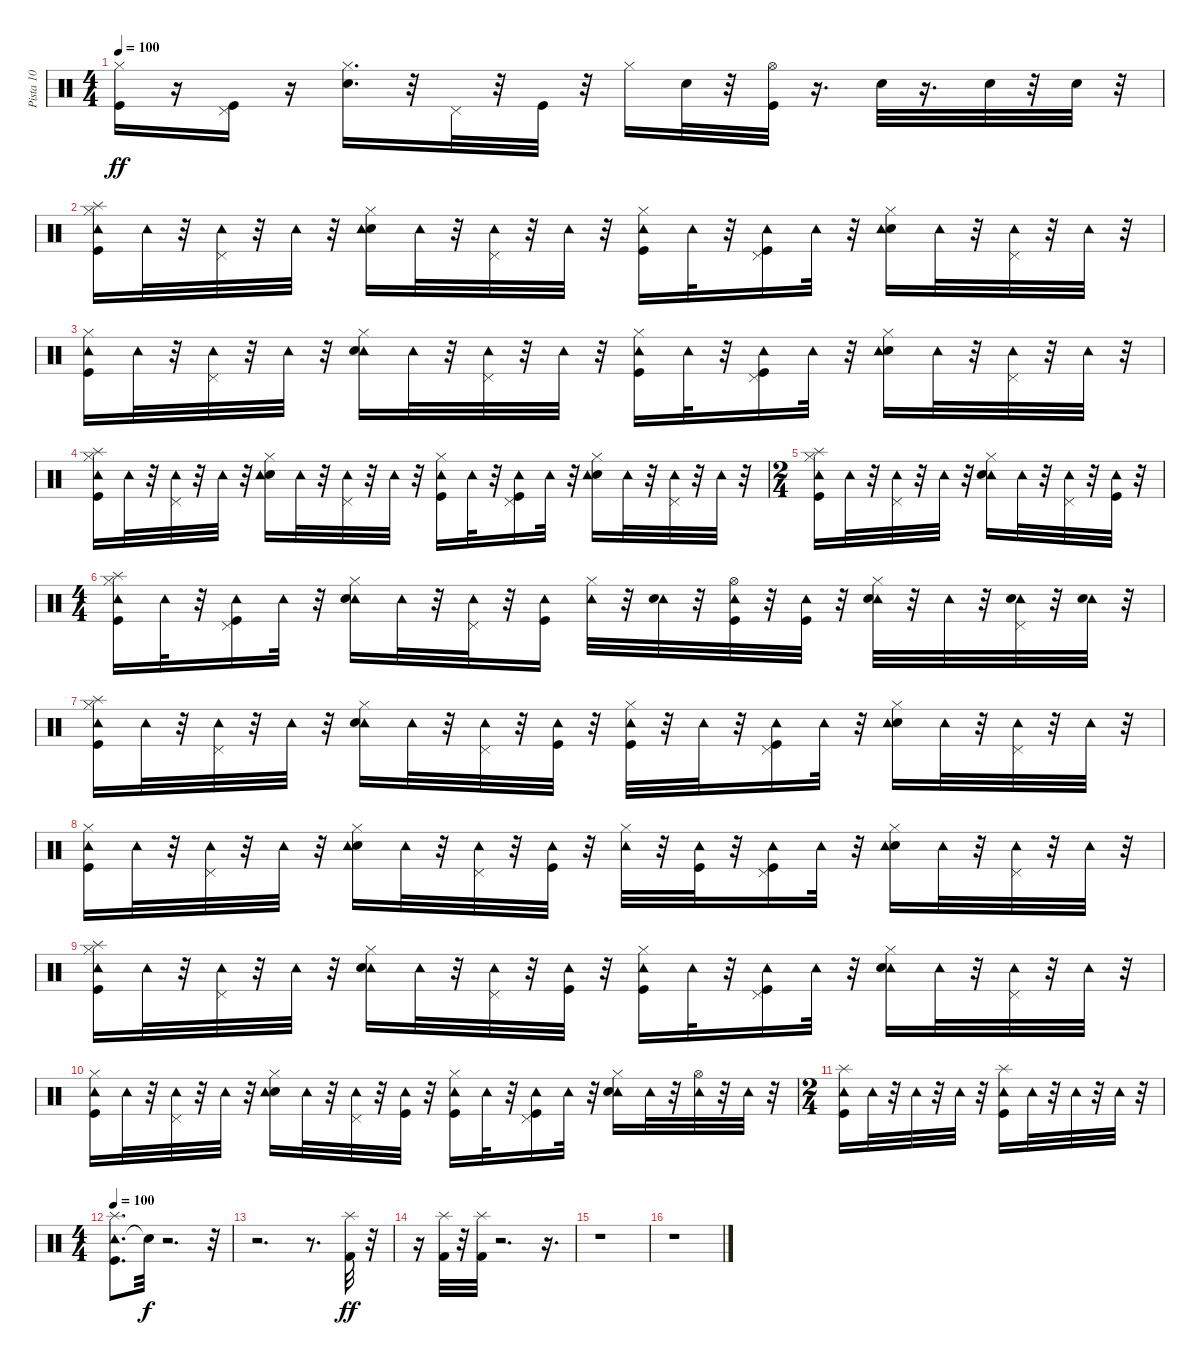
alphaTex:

\track ("Pista 10" "Pista 10") {instrument percussion}
\staff {score}
\articulation defaults
\ts (4 4)
\tempo 100
\clef neutral
\ks c
("Hi-Hat (closed)" "Kick (hit)").16{dy ff} r.16 ("Pedal Hi-Hat (hit)" "Kick (hit)").16 r.16 ("Hi-Hat (closed)" "Snare (hit) 2").16{d} r.32 "Pedal Hi-Hat (hit)".32 r.32 "Kick (hit)".32 r.32 "Hi-Hat (closed)".16 "Snare (hit) 2".32 r.32 ("Hi-Hat (open)" "Kick (hit)").32 r.16{d} "Snare (hit) 2".32 r.16{d} "Snare (hit) 2".32 r.32 "Snare (hit) 2".32 r.32 |
("Tambourine (hit)" "Kick (hit)" "Splash (hit)" "Hi-Hat (closed)").16 "Tambourine (hit)".32 r.32 ("Tambourine (hit)" "Pedal Hi-Hat (hit)").32 r.32 "Tambourine (hit)".32 r.32 ("Snare (hit) 2" "Hi-Hat (closed)" "Tambourine (hit)").16 "Tambourine (hit)".32 r.32 ("Tambourine (hit)" "Pedal Hi-Hat (hit)").32 r.32 "Tambourine (hit)".32 r.32 ("Kick (hit)" "Hi-Hat (closed)" "Tambourine (hit)").16 "Tambourine (hit)".32 r.32 ("Tambourine (hit)" "Kick (hit)" "Pedal Hi-Hat (hit)").16 "Tambourine (hit)".32 r.32 ("Snare (hit) 2" "Hi-Hat (closed)" "Tambourine (hit)").16 "Tambourine (hit)".32 r.32 ("Pedal Hi-Hat (hit)" "Tambourine (hit)").32 r.32 "Tambourine (hit)".32 r.32 |
("Kick (hit)" "Hi-Hat (closed)" "Tambourine (hit)").16 "Tambourine (hit)".32 r.32 ("Tambourine (hit)" "Pedal Hi-Hat (hit)").32 r.32 "Tambourine (hit)".32 r.32 ("Tambourine (hit)" "Snare (hit) 2" "Hi-Hat (closed)").16 "Tambourine (hit)".32 r.32 ("Tambourine (hit)" "Pedal Hi-Hat (hit)").32 r.32 "Tambourine (hit)".32 r.32 ("Tambourine (hit)" "Kick (hit)" "Hi-Hat (closed)").16 "Tambourine (hit)".32 r.32 ("Tambourine (hit)" "Kick (hit)" "Pedal Hi-Hat (hit)").16 "Tambourine (hit)".32 r.32 ("Snare (hit) 2" "Hi-Hat (closed)" "Tambourine (hit)").16 "Tambourine (hit)".32 r.32 ("Pedal Hi-Hat (hit)" "Tambourine (hit)").32 r.32 "Tambourine (hit)".32 r.32 |
("Kick (hit)" "Hi-Hat (closed)" "Splash (hit)" "Tambourine (hit)").16 "Tambourine (hit)".32 r.32 ("Pedal Hi-Hat (hit)" "Tambourine (hit)").32 r.32 "Tambourine (hit)".32 r.32 ("Snare (hit) 2" "Hi-Hat (closed)" "Tambourine (hit)").16 "Tambourine (hit)".32 r.32 ("Tambourine (hit)" "Pedal Hi-Hat (hit)").32 r.32 "Tambourine (hit)".32 r.32 ("Tambourine (hit)" "Kick (hit)" "Hi-Hat (closed)").16 "Tambourine (hit)".32 r.32 ("Tambourine (hit)" "Kick (hit)" "Pedal Hi-Hat (hit)").16 "Tambourine (hit)".32 r.32 ("Snare (hit) 2" "Hi-Hat (closed)" "Tambourine (hit)").16 "Tambourine (hit)".32 r.32 ("Pedal Hi-Hat (hit)" "Tambourine (hit)").32 r.32 "Tambourine (hit)".32 r.32 |
\ts (2 4)
("Tambourine (hit)" "Kick (hit)" "Splash (hit)" "Hi-Hat (closed)").16 "Tambourine (hit)".32 r.32 ("Tambourine (hit)" "Pedal Hi-Hat (hit)").32 r.32 "Tambourine (hit)".32 r.32 ("Tambourine (hit)" "Snare (hit) 2" "Hi-Hat (closed)").16 "Tambourine (hit)".32 r.32 ("Tambourine (hit)" "Pedal Hi-Hat (hit)").32 r.32 ("Tambourine (hit)" "Kick (hit)").32 r.32 |
\ts (4 4)
("Tambourine (hit)" "Kick (hit)" "Splash (hit)" "Hi-Hat (closed)").16 "Tambourine (hit)".32 r.32 ("Tambourine (hit)" "Kick (hit)" "Pedal Hi-Hat (hit)").16 "Tambourine (hit)".32 r.32 ("Tambourine (hit)" "Snare (hit) 2" "Hi-Hat (closed)").16 "Tambourine (hit)".32 r.32 ("Tambourine (hit)" "Pedal Hi-Hat (hit)").32 r.32 ("Tambourine (hit)" "Kick (hit)").16 ("Tambourine (hit)" "Hi-Hat (closed)").32 r.32 ("Tambourine (hit)" "Snare (hit) 2").32 r.32 ("Tambourine (hit)" "Kick (hit)" "Hi-Hat (open)").32 r.32 ("Tambourine (hit)" "Kick (hit)").32 r.32 ("Tambourine (hit)" "Snare (hit) 2" "Hi-Hat (closed)").32 r.32 "Tambourine (hit)".32 r.32 ("Tambourine (hit)" "Snare (hit) 2" "Pedal Hi-Hat (hit)").32 r.32 ("Tambourine (hit)" "Snare (hit) 2").32 r.32 |
("Tambourine (hit)" "Kick (hit)" "Hi-Hat (closed)" "Splash (hit)").16 "Tambourine (hit)".32 r.32 ("Tambourine (hit)" "Pedal Hi-Hat (hit)").32 r.32 "Tambourine (hit)".32 r.32 ("Tambourine (hit)" "Snare (hit) 2" "Hi-Hat (closed)").16 "Tambourine (hit)".32 r.32 ("Tambourine (hit)" "Pedal Hi-Hat (hit)").32 r.32 ("Kick (hit)" "Tambourine (hit)").32 r.32 ("Tambourine (hit)" "Kick (hit)" "Hi-Hat (closed)").32 r.32 "Tambourine (hit)".32 r.32 ("Kick (hit)" "Pedal Hi-Hat (hit)" "Tambourine (hit)").16 "Tambourine (hit)".32 r.32 ("Snare (hit) 2" "Hi-Hat (closed)" "Tambourine (hit)").16 "Tambourine (hit)".32 r.32 ("Pedal Hi-Hat (hit)" "Tambourine (hit)").32 r.32 "Tambourine (hit)".32 r.32 |
("Kick (hit)" "Hi-Hat (closed)" "Tambourine (hit)").16 "Tambourine (hit)".32 r.32 ("Tambourine (hit)" "Pedal Hi-Hat (hit)").32 r.32 "Tambourine (hit)".32 r.32 ("Snare (hit) 2" "Hi-Hat (closed)" "Tambourine (hit)").16 "Tambourine (hit)".32 r.32 ("Pedal Hi-Hat (hit)" "Tambourine (hit)").32 r.32 ("Kick (hit)" "Tambourine (hit)").32 r.32 ("Hi-Hat (closed)" "Tambourine (hit)").32 r.32 ("Kick (hit)" "Tambourine (hit)").32 r.32 ("Kick (hit)" "Pedal Hi-Hat (hit)" "Tambourine (hit)").16 "Tambourine (hit)".32 r.32 ("Snare (hit) 2" "Hi-Hat (closed)" "Tambourine (hit)").16 "Tambourine (hit)".32 r.32 ("Pedal Hi-Hat (hit)" "Tambourine (hit)").32 r.32 "Tambourine (hit)".32 r.32 |
("Kick (hit)" "Splash (hit)" "Hi-Hat (closed)" "Tambourine (hit)").16 "Tambourine (hit)".32 r.32 ("Tambourine (hit)" "Pedal Hi-Hat (hit)").32 r.32 "Tambourine (hit)".32 r.32 ("Tambourine (hit)" "Snare (hit) 2" "Hi-Hat (closed)").16 "Tambourine (hit)".32 r.32 ("Tambourine (hit)" "Pedal Hi-Hat (hit)").32 r.32 ("Tambourine (hit)" "Kick (hit)").32 r.32 ("Tambourine (hit)" "Kick (hit)" "Hi-Hat (closed)").16 "Tambourine (hit)".32 r.32 ("Tambourine (hit)" "Kick (hit)" "Pedal Hi-Hat (hit)").16 "Tambourine (hit)".32 r.32 ("Tambourine (hit)" "Snare (hit) 2" "Hi-Hat (closed)").16 "Tambourine (hit)".32 r.32 ("Tambourine (hit)" "Pedal Hi-Hat (hit)").32 r.32 "Tambourine (hit)".32 r.32 |
("Tambourine (hit)" "Kick (hit)" "Hi-Hat (closed)").16 "Tambourine (hit)".32 r.32 ("Pedal Hi-Hat (hit)" "Tambourine (hit)").32 r.32 "Tambourine (hit)".32 r.32 ("Snare (hit) 2" "Hi-Hat (closed)" "Tambourine (hit)").16 "Tambourine (hit)".32 r.32 ("Tambourine (hit)" "Pedal Hi-Hat (hit)").32 r.32 ("Tambourine (hit)" "Kick (hit)").32 r.32 ("Tambourine (hit)" "Hi-Hat (closed)" "Kick (hit)").16 "Tambourine (hit)".32 r.32 ("Tambourine (hit)" "Pedal Hi-Hat (hit)" "Kick (hit)").16 "Tambourine (hit)".32 r.32 ("Tambourine (hit)" "Snare (hit) 2" "Hi-Hat (closed)").16 "Tambourine (hit)".32 r.32 ("Tambourine (hit)" "Hi-Hat (open)").32 r.32 "Tambourine (hit)".32 r.32 |
\ts (2 4)
("Tambourine (hit)" "Kick (hit)" "Splash (hit)").16 "Tambourine (hit)".32 r.32 "Tambourine (hit)".32 r.32 "Tambourine (hit)".32 r.32 ("Tambourine (hit)" "Kick (hit)" "Splash (hit)").16 "Tambourine (hit)".32 r.32 "Tambourine (hit)".32 r.32 "Tambourine (hit)".32 r.32 |
\ts (4 4)
\tempo 100
("Tambourine (hit)" "Splash (hit)" "Kick (hit)").8{d} "Snare (hit)"{t}.32{dy f} r.2{d} r.32 |
r.2{d} r.8{d} ("Splash (hit)" "Kick (hit) 2").32{dy ff} r.32 |
r.16 ("Splash (hit)" "Kick (hit) 2").32 r.32 ("Splash (hit)" "Kick (hit) 2").32 r.2{d} r.16{d} |
r.1 |
r.1
